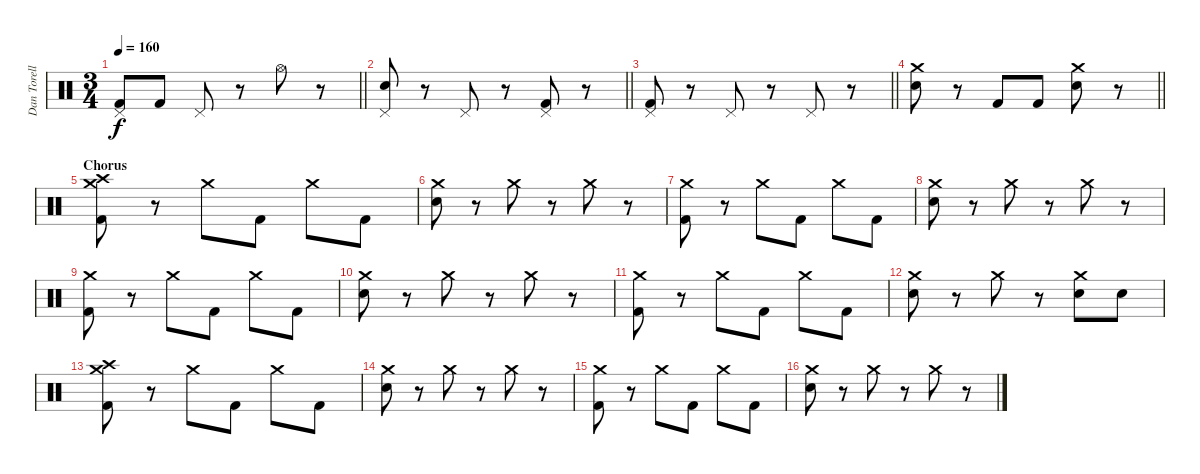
\track ("Dan Torelli - Drums" "Dan Torell") {instrument percussion}
\staff {score}
\articulation defaults
\ts (3 4)
\tempo 160
\clef neutral
\barLineRight lightlight
\ks c
("Pedal Hi-Hat (hit)" "Kick (hit) 2").8{dy f} "Kick (hit) 2".8 "Pedal Hi-Hat (hit)".8 r.8 "Hi-Hat (open)".8 r.8 |
\barLineRight lightlight
("Pedal Hi-Hat (hit)" "Electric Snare (hit)").8 r.8 "Pedal Hi-Hat (hit)".8 r.8 ("Pedal Hi-Hat (hit)" "Kick (hit) 2").8 r.8 |
\barLineRight lightlight
("Pedal Hi-Hat (hit)" "Kick (hit) 2").8 r.8 "Pedal Hi-Hat (hit)".8 r.8 "Pedal Hi-Hat (hit)".8 r.8 |
\barLineRight lightlight
("Crash medium (hit)" "Electric Snare (hit)").8 r.8 "Kick (hit) 2".8 "Kick (hit) 2".8 ("Crash medium (hit)" "Electric Snare (hit)").8 r.8 |
\section ("" "Chorus")
("Crash high (hit)" "Crash medium (hit)" "Kick (hit) 2").8 r.8 "Crash medium (hit)".8 "Kick (hit) 2".8 "Crash medium (hit)".8 "Kick (hit) 2".8 |
("Crash medium (hit)" "Electric Snare (hit)").8 r.8 "Crash medium (hit)".8 r.8 "Crash medium (hit)".8 r.8 |
("Crash medium (hit)" "Kick (hit) 2").8 r.8 "Crash medium (hit)".8 "Kick (hit) 2".8 "Crash medium (hit)".8 "Kick (hit) 2".8 |
("Crash medium (hit)" "Electric Snare (hit)").8 r.8 "Crash medium (hit)".8 r.8 "Crash medium (hit)".8 r.8 |
("Crash medium (hit)" "Kick (hit) 2").8 r.8 "Crash medium (hit)".8 "Kick (hit) 2".8 "Crash medium (hit)".8 "Kick (hit) 2".8 |
("Crash medium (hit)" "Electric Snare (hit)").8 r.8 "Crash medium (hit)".8 r.8 "Crash medium (hit)".8 r.8 |
("Crash medium (hit)" "Kick (hit) 2").8 r.8 "Crash medium (hit)".8 "Kick (hit) 2".8 "Crash medium (hit)".8 "Kick (hit) 2".8 |
("Crash medium (hit)" "Electric Snare (hit)").8 r.8 "Crash medium (hit)".8 r.8 ("Crash medium (hit)" "Electric Snare (hit)").8 "Electric Snare (hit)".8 |
("Crash medium (hit)" "Crash high (hit)" "Kick (hit) 2").8 r.8 "Crash medium (hit)".8 "Kick (hit) 2".8 "Crash medium (hit)".8 "Kick (hit) 2".8 |
("Crash medium (hit)" "Electric Snare (hit)").8 r.8 "Crash medium (hit)".8 r.8 "Crash medium (hit)".8 r.8 |
("Crash medium (hit)" "Kick (hit) 2").8 r.8 "Crash medium (hit)".8 "Kick (hit) 2".8 "Crash medium (hit)".8 "Kick (hit) 2".8 |
("Crash medium (hit)" "Electric Snare (hit)").8 r.8 "Crash medium (hit)".8 r.8 "Crash medium (hit)".8 r.8
